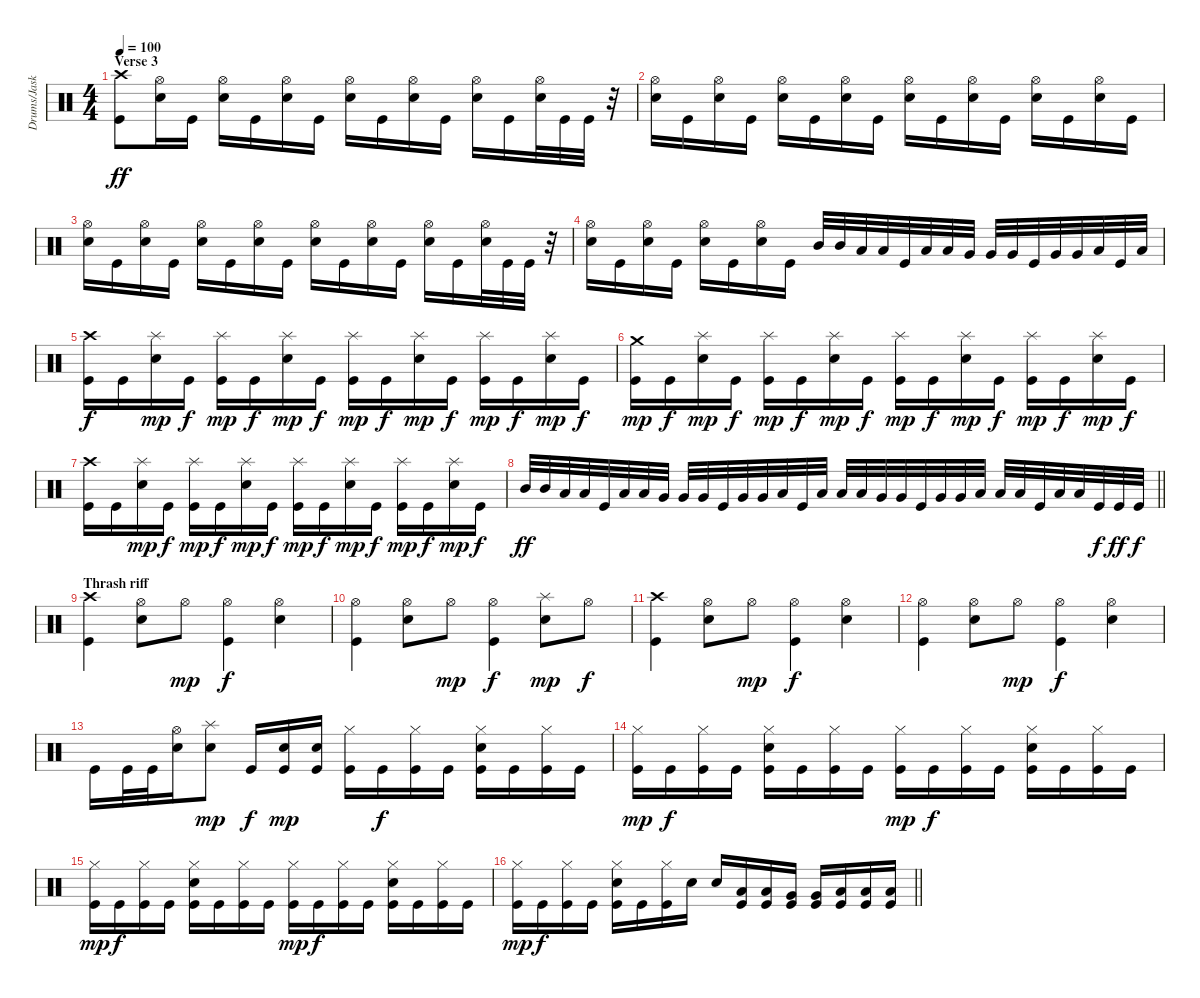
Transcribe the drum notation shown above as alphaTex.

\track ("Drums/Jaska" "Drums/Jask") {instrument percussion}
\staff {score}
\articulation defaults
\ts (4 4)
\section ("" "Verse 3")
\tempo 100
\clef neutral
\ks c
("Crash high (hit)" "Kick (hit)").8{dy ff} ("Hi-Hat (open)" "Electric Snare (hit)").16 "Kick (hit)".16 ("Hi-Hat (open)" "Electric Snare (hit)").16 "Kick (hit)".16 ("Hi-Hat (open)" "Electric Snare (hit)").16 "Kick (hit)".16 ("Hi-Hat (open)" "Electric Snare (hit)").16 "Kick (hit)".16 ("Hi-Hat (open)" "Electric Snare (hit)").16 "Kick (hit)".16 ("Hi-Hat (open)" "Electric Snare (hit)").16 "Kick (hit)".16 ("Hi-Hat (open)" "Electric Snare (hit)").32 "Kick (hit)".32 "Kick (hit)".32 r.32 |
("Hi-Hat (open)" "Electric Snare (hit)").16 "Kick (hit)".16 ("Hi-Hat (open)" "Electric Snare (hit)").16 "Kick (hit)".16 ("Hi-Hat (open)" "Electric Snare (hit)").16 "Kick (hit)".16 ("Hi-Hat (open)" "Electric Snare (hit)").16 "Kick (hit)".16 ("Hi-Hat (open)" "Electric Snare (hit)").16 "Kick (hit)".16 ("Hi-Hat (open)" "Electric Snare (hit)").16 "Kick (hit)".16 ("Hi-Hat (open)" "Electric Snare (hit)").16 "Kick (hit)".16 ("Hi-Hat (open)" "Electric Snare (hit)").16 "Kick (hit)".16 |
("Hi-Hat (open)" "Electric Snare (hit)").16 "Kick (hit)".16 ("Hi-Hat (open)" "Electric Snare (hit)").16 "Kick (hit)".16 ("Hi-Hat (open)" "Electric Snare (hit)").16 "Kick (hit)".16 ("Hi-Hat (open)" "Electric Snare (hit)").16 "Kick (hit)".16 ("Hi-Hat (open)" "Electric Snare (hit)").16 "Kick (hit)".16 ("Hi-Hat (open)" "Electric Snare (hit)").16 "Kick (hit)".16 ("Hi-Hat (open)" "Electric Snare (hit)").16 "Kick (hit)".16 ("Hi-Hat (open)" "Electric Snare (hit)").32 "Kick (hit)".32 "Kick (hit)".32 r.32 |
("Hi-Hat (open)" "Electric Snare (hit)").16 "Kick (hit)".16 ("Hi-Hat (open)" "Electric Snare (hit)").16 "Kick (hit)".16 ("Hi-Hat (open)" "Electric Snare (hit)").16 "Kick (hit)".16 ("Hi-Hat (open)" "Electric Snare (hit)").16 "Kick (hit)".16 "Mid Tom (hit)".32 "Mid Tom (hit)".32 "Low Tom (hit)".32 "Low Tom (hit)".32 "Kick (hit)".32 "Low Tom (hit)".32 "Low Tom (hit)".32 "Very Low Tom (hit)".32 "Very Low Tom (hit)".32 "Very Low Tom (hit)".32 "Kick (hit)".32 "Very Low Tom (hit)".32 "Very Low Tom (hit)".32 "Low Floor Tom (hit)".32 "Kick (hit)".32 "Low Floor Tom (hit)".32 |
("Crash high (hit)" "Kick (hit)").16{dy f} "Kick (hit)".16 ("Splash (hit)" "Electric Snare (hit)").16{dy mp} "Kick (hit)".16{dy f} ("Splash (hit)" "Kick (hit)").16{dy mp} "Kick (hit)".16{dy f} ("Splash (hit)" "Electric Snare (hit)").16{dy mp} "Kick (hit)".16{dy f} ("Splash (hit)" "Kick (hit)").16{dy mp} "Kick (hit)".16{dy f} ("Splash (hit)" "Electric Snare (hit)").16{dy mp} "Kick (hit)".16{dy f} ("Splash (hit)" "Kick (hit)").16{dy mp} "Kick (hit)".16{dy f} ("Splash (hit)" "Electric Snare (hit)").16{dy mp} "Kick (hit)".16{dy f} |
("Crash medium (hit)" "Kick (hit)").16{dy mp} "Kick (hit)".16{dy f} ("Splash (hit)" "Electric Snare (hit)").16{dy mp} "Kick (hit)".16{dy f} ("Splash (hit)" "Kick (hit)").16{dy mp} "Kick (hit)".16{dy f} ("Splash (hit)" "Electric Snare (hit)").16{dy mp} "Kick (hit)".16{dy f} ("Splash (hit)" "Kick (hit)").16{dy mp} "Kick (hit)".16{dy f} ("Splash (hit)" "Electric Snare (hit)").16{dy mp} "Kick (hit)".16{dy f} ("Splash (hit)" "Kick (hit)").16{dy mp} "Kick (hit)".16{dy f} ("Splash (hit)" "Electric Snare (hit)").16{dy mp} "Kick (hit)".16{dy f} |
("Crash high (hit)" "Kick (hit)").16 "Kick (hit)".16 ("Splash (hit)" "Electric Snare (hit)").16{dy mp} "Kick (hit)".16{dy f} ("Splash (hit)" "Kick (hit)").16{dy mp} "Kick (hit)".16{dy f} ("Splash (hit)" "Electric Snare (hit)").16{dy mp} "Kick (hit)".16{dy f} ("Splash (hit)" "Kick (hit)").16{dy mp} "Kick (hit)".16{dy f} ("Splash (hit)" "Electric Snare (hit)").16{dy mp} "Kick (hit)".16{dy f} ("Splash (hit)" "Kick (hit)").16{dy mp} "Kick (hit)".16{dy f} ("Splash (hit)" "Electric Snare (hit)").16{dy mp} "Kick (hit)".16{dy f} |
\barLineRight lightlight "Mid Tom (hit)".32{dy ff} "Mid Tom (hit)".32 "Low Tom (hit)".32 "Low Tom (hit)".32 "Kick (hit)".32 "Low Tom (hit)".32 "Low Tom (hit)".32 "Very Low Tom (hit)".32 "Very Low Tom (hit)".32 "Very Low Tom (hit)".32 "Kick (hit)".32 "Very Low Tom (hit)".32 "Very Low Tom (hit)".32 "Low Floor Tom (hit)".32 "Kick (hit)".32 "Low Floor Tom (hit)".32 "Low Tom (hit)".32 "Low Tom (hit)".32 "Very Low Tom (hit)".32 "Very Low Tom (hit)".32 "Kick (hit)".32 "Very Low Tom (hit)".32 "Very Low Tom (hit)".32 "Low Floor Tom (hit)".32 "Low Floor Tom (hit)".32 "Low Floor Tom (hit)".32 "Kick (hit)".32 "Low Floor Tom (hit)".32 "Low Floor Tom (hit)".32 "Kick (hit)".32{dy f} "Kick (hit)".32{dy ff} "Kick (hit)".32{dy f}
|
\section ("" "Thrash riff")
("Crash high (hit)" "Kick (hit)").4 ("Hi-Hat (open)" "Electric Snare (hit)").8 "Hi-Hat (open)".8{dy mp} ("Hi-Hat (open)" "Kick (hit)").4{dy f} ("Hi-Hat (open)" "Electric Snare (hit)").4 |
("Hi-Hat (open)" "Kick (hit)").4 ("Hi-Hat (open)" "Electric Snare (hit)").8 "Hi-Hat (open)".8{dy mp} ("Hi-Hat (open)" "Kick (hit)").4{dy f} ("Splash (hit)" "Electric Snare (hit)").8{dy mp} "Hi-Hat (open)".8{dy f} |
("Crash high (hit)" "Kick (hit)").4 ("Hi-Hat (open)" "Electric Snare (hit)").8 "Hi-Hat (open)".8{dy mp} ("Hi-Hat (open)" "Kick (hit)").4{dy f} ("Hi-Hat (open)" "Electric Snare (hit)").4 |
("Hi-Hat (open)" "Kick (hit)").4 ("Hi-Hat (open)" "Electric Snare (hit)").8 "Hi-Hat (open)".8{dy mp} ("Hi-Hat (open)" "Kick (hit)").4{dy f} ("Hi-Hat (open)" "Electric Snare (hit)").4 |
"Kick (hit)".16 "Kick (hit)".32 "Kick (hit)".32 ("Hi-Hat (open)" "Electric Snare (hit)").16 ("Splash (hit)" "Electric Snare (hit)").8{dy mp} "Kick (hit)".16{dy f} ("Electric Snare (hit)" "Kick (hit)").16{dy mp} ("Electric Snare (hit)" "Kick (hit)").16 ("Hi-Hat (closed)" "Kick (hit)").16 "Kick (hit)".16{dy f} ("Hi-Hat (closed)" "Kick (hit)").16 "Kick (hit)".16 ("Hi-Hat (closed)" "Electric Snare (hit)" "Kick (hit)").16 "Kick (hit)".16 ("Hi-Hat (closed)" "Kick (hit)").16 "Kick (hit)".16 |
("Hi-Hat (closed)" "Kick (hit)").16{dy mp} "Kick (hit)".16{dy f} ("Hi-Hat (closed)" "Kick (hit)").16 "Kick (hit)".16 ("Hi-Hat (closed)" "Electric Snare (hit)" "Kick (hit)").16 "Kick (hit)".16 ("Hi-Hat (closed)" "Kick (hit)").16 "Kick (hit)".16 ("Hi-Hat (closed)" "Kick (hit)").16{dy mp} "Kick (hit)".16{dy f} ("Hi-Hat (closed)" "Kick (hit)").16 "Kick (hit)".16 ("Hi-Hat (closed)" "Electric Snare (hit)" "Kick (hit)").16 "Kick (hit)".16 ("Hi-Hat (closed)" "Kick (hit)").16 "Kick (hit)".16 |
("Hi-Hat (closed)" "Kick (hit)").16{dy mp} "Kick (hit)".16{dy f} ("Hi-Hat (closed)" "Kick (hit)").16 "Kick (hit)".16 ("Hi-Hat (closed)" "Electric Snare (hit)" "Kick (hit)").16 "Kick (hit)".16 ("Hi-Hat (closed)" "Kick (hit)").16 "Kick (hit)".16 ("Hi-Hat (closed)" "Kick (hit)").16{dy mp} "Kick (hit)".16{dy f} ("Hi-Hat (closed)" "Kick (hit)").16 "Kick (hit)".16 ("Hi-Hat (closed)" "Electric Snare (hit)" "Kick (hit)").16 "Kick (hit)".16 ("Hi-Hat (closed)" "Kick (hit)").16 "Kick (hit)".16 |
\barLineRight lightlight
("Hi-Hat (closed)" "Kick (hit)").16{dy mp} "Kick (hit)".16{dy f} ("Hi-Hat (closed)" "Kick (hit)").16 "Kick (hit)".16 ("Hi-Hat (closed)" "Electric Snare (hit)" "Kick (hit)").16 "Kick (hit)".16 ("Hi-Hat (closed)" "Kick (hit)").16 "Electric Snare (hit)".16 "Electric Snare (hit)".16 ("Low Tom (hit)" "Kick (hit)").16 ("Low Tom (hit)" "Kick (hit)").16 ("Very Low Tom (hit)" "Kick (hit)").16 ("Very Low Tom (hit)" "Kick (hit)").16 ("Low Floor Tom (hit)" "Kick (hit)").16 ("Low Floor Tom (hit)" "Kick (hit)").16 ("Low Floor Tom (hit)" "Kick (hit)").16
